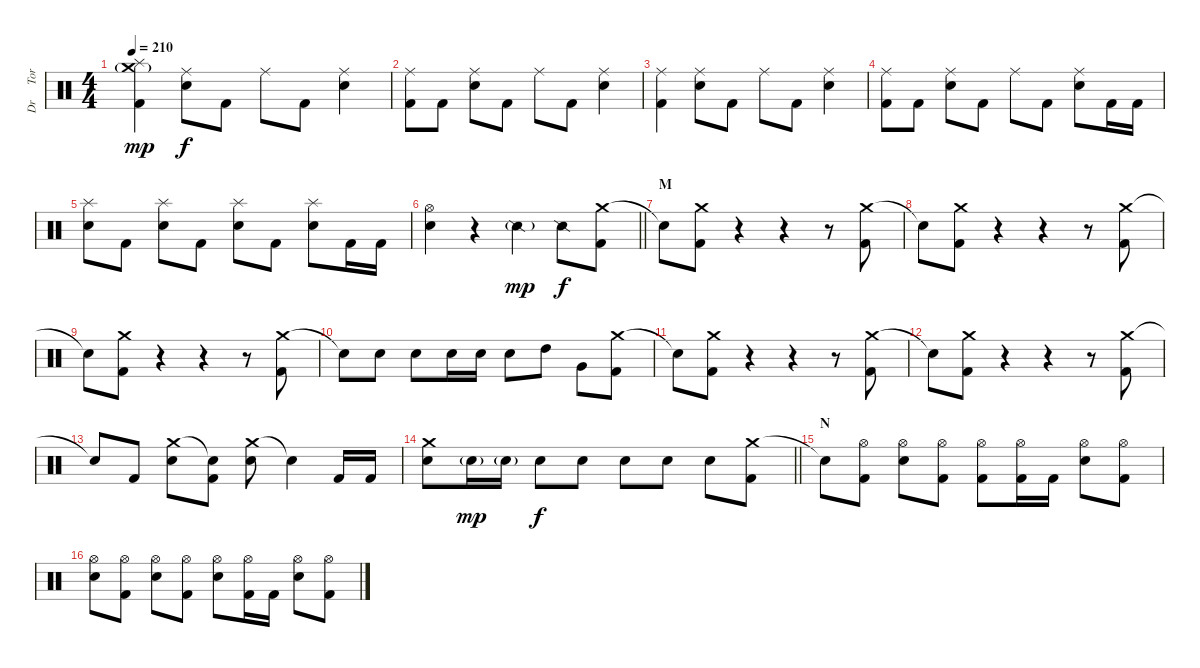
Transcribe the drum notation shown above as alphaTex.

\track ("Dr     Tora" "Dr     Tor") {instrument percussion}
\staff {score}
\articulation defaults
\ts (4 4)
\tempo 210
\clef neutral
\ks c
("Splash (hit)" "Crash medium (hit)"{g} "Kick (hit) 2").4{dy mp} ("Ride (middle)" "Electric Snare (hit)").8{dy f} "Kick (hit) 2".8 "Ride (middle)".8 "Kick (hit) 2".8 ("Ride (middle)" "Electric Snare (hit)").4 |
("Ride (middle)" "Kick (hit) 2").8 "Kick (hit) 2".8 ("Ride (middle)" "Electric Snare (hit)").8 "Kick (hit) 2".8 "Ride (middle)".8 "Kick (hit) 2".8 ("Ride (middle)" "Electric Snare (hit)").4 |
("Ride (middle)" "Kick (hit) 2").4 ("Ride (middle)" "Electric Snare (hit)").8 "Kick (hit) 2".8 "Ride (middle)".8 "Kick (hit) 2".8 ("Ride (middle)" "Electric Snare (hit)").4 |
("Ride (middle)" "Kick (hit) 2").8 "Kick (hit) 2".8 ("Ride (middle)" "Electric Snare (hit)").8 "Kick (hit) 2".8 "Ride (middle)".8 "Kick (hit) 2".8 ("Ride (middle)" "Electric Snare (hit)").8 "Kick (hit) 2".16 "Kick (hit) 2".16 |
("Splash (hit)" "Electric Snare (hit)").8 "Kick (hit) 2".8 ("Splash (hit)" "Electric Snare (hit)").8 "Kick (hit) 2".8 ("Splash (hit)" "Electric Snare (hit)").8 "Kick (hit) 2".8 ("Splash (hit)" "Electric Snare (hit)").8 "Kick (hit) 2".16 "Kick (hit) 2".16 |
\barLineRight lightlight
("Hi-Hat (open)" "Electric Snare (hit)").4 r.4 "Snare (side stick) 2"{g}.4{dy mp} "Snare (side stick) 2".8{dy f} ("Crash medium (hit)" "Kick (hit) 2").8 |
\section ("" "M")
"Snare (hit)"{t}.8 ("Crash medium (hit)" "Kick (hit) 2").8 r.4 r.4 r.8 ("Crash medium (hit)" "Kick (hit) 2").8 |
"Snare (hit)"{t}.8 ("Crash medium (hit)" "Kick (hit) 2").8 r.4 r.4 r.8 ("Crash medium (hit)" "Kick (hit) 2").8 |
"Snare (hit)"{t}.8 ("Crash medium (hit)" "Kick (hit) 2").8 r.4 r.4 r.8 ("Crash medium (hit)" "Kick (hit) 2").8 |
"Snare (hit)"{t}.8 "Electric Snare (hit)".8 "Electric Snare (hit)".8 "Electric Snare (hit)".16 "Electric Snare (hit)".16 "Electric Snare (hit)".8 "High Tom (hit)".8 "Very Low Tom (hit)".8 ("Crash medium (hit)" "Kick (hit) 2").8 |
"Snare (hit)"{t}.8 ("Crash medium (hit)" "Kick (hit) 2").8 r.4 r.4 r.8 ("Crash medium (hit)" "Kick (hit) 2").8 |
"Snare (hit)"{t}.8 ("Crash medium (hit)" "Kick (hit) 2").8 r.4 r.4 r.8 ("Crash medium (hit)" "Kick (hit) 2").8 |
"Snare (hit)"{t}.8 "Kick (hit) 2".8 ("Crash medium (hit)" "Electric Snare (hit)").8 ("Snare (hit)"{t} "Kick (hit) 2").8 ("Crash medium (hit)" "Electric Snare (hit)").8 "Snare (hit)"{t}.4 "Kick (hit) 2".16 "Kick (hit) 2".16 |
\barLineRight lightlight
("Crash medium (hit)" "Electric Snare (hit)").8 "Electric Snare (hit)"{g}.16{dy mp} "Electric Snare (hit)"{g}.16 "Electric Snare (hit)".8{dy f} "Electric Snare (hit)".8 "Electric Snare (hit)".8 "Electric Snare (hit)".8 "Electric Snare (hit)".8 ("Crash medium (hit)" "Kick (hit) 2").8 |
\section ("" "N")
"Snare (hit)"{t}.8 ("Hi-Hat (open)" "Kick (hit) 2").8 ("Hi-Hat (open)" "Electric Snare (hit)").8 ("Hi-Hat (open)" "Kick (hit) 2").8 ("Hi-Hat (open)" "Kick (hit) 2").8 ("Hi-Hat (open)" "Kick (hit) 2").16 "Kick (hit) 2".16 ("Hi-Hat (open)" "Electric Snare (hit)").8 ("Hi-Hat (open)" "Kick (hit) 2").8 |
("Hi-Hat (open)" "Electric Snare (hit)").8 ("Hi-Hat (open)" "Kick (hit) 2").8 ("Hi-Hat (open)" "Electric Snare (hit)").8 ("Hi-Hat (open)" "Kick (hit) 2").8 ("Hi-Hat (open)" "Electric Snare (hit)").8 ("Hi-Hat (open)" "Kick (hit) 2").16 "Kick (hit) 2".16 ("Hi-Hat (open)" "Electric Snare (hit)").8 ("Hi-Hat (open)" "Kick (hit) 2").8
